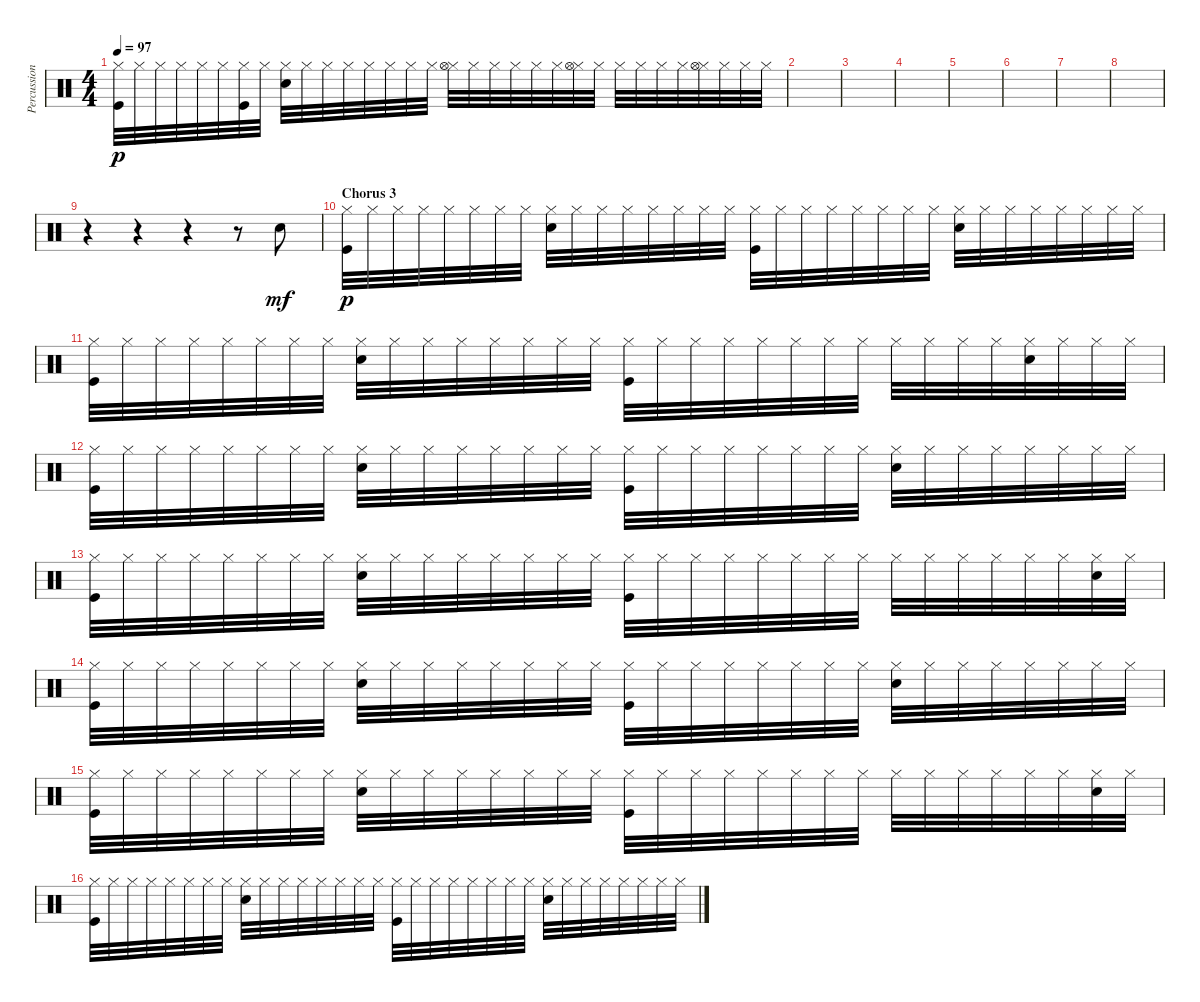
\track ("Percussion" "Percussion") {instrument percussion}
\staff {score}
\articulation defaults
\ts (4 4)
\tempo 97
\clef neutral
\ks c
("Hi-Hat (closed)" "Kick (hit)").32{dy p} "Hi-Hat (closed)".32 "Hi-Hat (closed)".32 "Hi-Hat (closed)".32 "Hi-Hat (closed)".32 "Hi-Hat (closed)".32 ("Hi-Hat (closed)" "Kick (hit)").32 "Hi-Hat (closed)".32 ("Hi-Hat (closed)" "Electric Snare (hit)").32 "Hi-Hat (closed)".32 "Hi-Hat (closed)".32 "Hi-Hat (closed)".32 "Hi-Hat (closed)".32 "Hi-Hat (closed)".32 "Hi-Hat (closed)".32 "Hi-Hat (closed)".32 ("Hi-Hat (closed)" "Hi-Hat (open)").32 "Hi-Hat (closed)".32 "Hi-Hat (closed)".32 "Hi-Hat (closed)".32 "Hi-Hat (closed)".32 "Hi-Hat (closed)".32 ("Hi-Hat (closed)" "Hi-Hat (open)").32 "Hi-Hat (closed)".32 "Hi-Hat (closed)".32 "Hi-Hat (closed)".32 "Hi-Hat (closed)".32 "Hi-Hat (closed)".32 ("Hi-Hat (closed)" "Hi-Hat (open)").32 "Hi-Hat (closed)".32 "Hi-Hat (closed)".32 "Hi-Hat (closed)".32 |
|
|
|
|
|
|
|
r.4 r.4 r.4 r.8 "Electric Snare (hit)".8{dy mf} |
\section ("" "Chorus 3")
("Hi-Hat (closed)" "Kick (hit)").32{dy p} "Hi-Hat (closed)".32 "Hi-Hat (closed)".32 "Hi-Hat (closed)".32 "Hi-Hat (closed)".32 "Hi-Hat (closed)".32 "Hi-Hat (closed)".32 "Hi-Hat (closed)".32 ("Hi-Hat (closed)" "Electric Snare (hit)").32 "Hi-Hat (closed)".32 "Hi-Hat (closed)".32 "Hi-Hat (closed)".32 "Hi-Hat (closed)".32 "Hi-Hat (closed)".32 "Hi-Hat (closed)".32 "Hi-Hat (closed)".32 ("Hi-Hat (closed)" "Kick (hit)").32 "Hi-Hat (closed)".32 "Hi-Hat (closed)".32 "Hi-Hat (closed)".32 "Hi-Hat (closed)".32 "Hi-Hat (closed)".32 "Hi-Hat (closed)".32 "Hi-Hat (closed)".32 ("Hi-Hat (closed)" "Electric Snare (hit)").32 "Hi-Hat (closed)".32 "Hi-Hat (closed)".32 "Hi-Hat (closed)".32 "Hi-Hat (closed)".32 "Hi-Hat (closed)".32 "Hi-Hat (closed)".32 "Hi-Hat (closed)".32 |
("Hi-Hat (closed)" "Kick (hit)").32 "Hi-Hat (closed)".32 "Hi-Hat (closed)".32 "Hi-Hat (closed)".32 "Hi-Hat (closed)".32 "Hi-Hat (closed)".32 "Hi-Hat (closed)".32 "Hi-Hat (closed)".32 ("Hi-Hat (closed)" "Electric Snare (hit)").32 "Hi-Hat (closed)".32 "Hi-Hat (closed)".32 "Hi-Hat (closed)".32 "Hi-Hat (closed)".32 "Hi-Hat (closed)".32 "Hi-Hat (closed)".32 "Hi-Hat (closed)".32 ("Hi-Hat (closed)" "Kick (hit)").32 "Hi-Hat (closed)".32 "Hi-Hat (closed)".32 "Hi-Hat (closed)".32 "Hi-Hat (closed)".32 "Hi-Hat (closed)".32 "Hi-Hat (closed)".32 "Hi-Hat (closed)".32 "Hi-Hat (closed)".32 "Hi-Hat (closed)".32 "Hi-Hat (closed)".32 "Hi-Hat (closed)".32 ("Hi-Hat (closed)" "Electric Snare (hit)").32 "Hi-Hat (closed)".32 "Hi-Hat (closed)".32 "Hi-Hat (closed)".32 |
("Hi-Hat (closed)" "Kick (hit)").32 "Hi-Hat (closed)".32 "Hi-Hat (closed)".32 "Hi-Hat (closed)".32 "Hi-Hat (closed)".32 "Hi-Hat (closed)".32 "Hi-Hat (closed)".32 "Hi-Hat (closed)".32 ("Hi-Hat (closed)" "Electric Snare (hit)").32 "Hi-Hat (closed)".32 "Hi-Hat (closed)".32 "Hi-Hat (closed)".32 "Hi-Hat (closed)".32 "Hi-Hat (closed)".32 "Hi-Hat (closed)".32 "Hi-Hat (closed)".32 ("Hi-Hat (closed)" "Kick (hit)").32 "Hi-Hat (closed)".32 "Hi-Hat (closed)".32 "Hi-Hat (closed)".32 "Hi-Hat (closed)".32 "Hi-Hat (closed)".32 "Hi-Hat (closed)".32 "Hi-Hat (closed)".32 ("Hi-Hat (closed)" "Electric Snare (hit)").32 "Hi-Hat (closed)".32 "Hi-Hat (closed)".32 "Hi-Hat (closed)".32 "Hi-Hat (closed)".32 "Hi-Hat (closed)".32 "Hi-Hat (closed)".32 "Hi-Hat (closed)".32 |
("Hi-Hat (closed)" "Kick (hit)").32 "Hi-Hat (closed)".32 "Hi-Hat (closed)".32 "Hi-Hat (closed)".32 "Hi-Hat (closed)".32 "Hi-Hat (closed)".32 "Hi-Hat (closed)".32 "Hi-Hat (closed)".32 ("Hi-Hat (closed)" "Electric Snare (hit)").32 "Hi-Hat (closed)".32 "Hi-Hat (closed)".32 "Hi-Hat (closed)".32 "Hi-Hat (closed)".32 "Hi-Hat (closed)".32 "Hi-Hat (closed)".32 "Hi-Hat (closed)".32 ("Hi-Hat (closed)" "Kick (hit)").32 "Hi-Hat (closed)".32 "Hi-Hat (closed)".32 "Hi-Hat (closed)".32 "Hi-Hat (closed)".32 "Hi-Hat (closed)".32 "Hi-Hat (closed)".32 "Hi-Hat (closed)".32 "Hi-Hat (closed)".32 "Hi-Hat (closed)".32 "Hi-Hat (closed)".32 "Hi-Hat (closed)".32 "Hi-Hat (closed)".32 "Hi-Hat (closed)".32 ("Hi-Hat (closed)" "Electric Snare (hit)").32 "Hi-Hat (closed)".32 |
("Hi-Hat (closed)" "Kick (hit)").32 "Hi-Hat (closed)".32 "Hi-Hat (closed)".32 "Hi-Hat (closed)".32 "Hi-Hat (closed)".32 "Hi-Hat (closed)".32 "Hi-Hat (closed)".32 "Hi-Hat (closed)".32 ("Hi-Hat (closed)" "Electric Snare (hit)").32 "Hi-Hat (closed)".32 "Hi-Hat (closed)".32 "Hi-Hat (closed)".32 "Hi-Hat (closed)".32 "Hi-Hat (closed)".32 "Hi-Hat (closed)".32 "Hi-Hat (closed)".32 ("Hi-Hat (closed)" "Kick (hit)").32 "Hi-Hat (closed)".32 "Hi-Hat (closed)".32 "Hi-Hat (closed)".32 "Hi-Hat (closed)".32 "Hi-Hat (closed)".32 "Hi-Hat (closed)".32 "Hi-Hat (closed)".32 ("Hi-Hat (closed)" "Electric Snare (hit)").32 "Hi-Hat (closed)".32 "Hi-Hat (closed)".32 "Hi-Hat (closed)".32 "Hi-Hat (closed)".32 "Hi-Hat (closed)".32 "Hi-Hat (closed)".32 "Hi-Hat (closed)".32 |
("Hi-Hat (closed)" "Kick (hit)").32 "Hi-Hat (closed)".32 "Hi-Hat (closed)".32 "Hi-Hat (closed)".32 "Hi-Hat (closed)".32 "Hi-Hat (closed)".32 "Hi-Hat (closed)".32 "Hi-Hat (closed)".32 ("Hi-Hat (closed)" "Electric Snare (hit)").32 "Hi-Hat (closed)".32 "Hi-Hat (closed)".32 "Hi-Hat (closed)".32 "Hi-Hat (closed)".32 "Hi-Hat (closed)".32 "Hi-Hat (closed)".32 "Hi-Hat (closed)".32 ("Hi-Hat (closed)" "Kick (hit)").32 "Hi-Hat (closed)".32 "Hi-Hat (closed)".32 "Hi-Hat (closed)".32 "Hi-Hat (closed)".32 "Hi-Hat (closed)".32 "Hi-Hat (closed)".32 "Hi-Hat (closed)".32 "Hi-Hat (closed)".32 "Hi-Hat (closed)".32 "Hi-Hat (closed)".32 "Hi-Hat (closed)".32 "Hi-Hat (closed)".32 "Hi-Hat (closed)".32 ("Hi-Hat (closed)" "Electric Snare (hit)").32 "Hi-Hat (closed)".32 |
("Hi-Hat (closed)" "Kick (hit)").32 "Hi-Hat (closed)".32 "Hi-Hat (closed)".32 "Hi-Hat (closed)".32 "Hi-Hat (closed)".32 "Hi-Hat (closed)".32 "Hi-Hat (closed)".32 "Hi-Hat (closed)".32 ("Hi-Hat (closed)" "Electric Snare (hit)").32 "Hi-Hat (closed)".32 "Hi-Hat (closed)".32 "Hi-Hat (closed)".32 "Hi-Hat (closed)".32 "Hi-Hat (closed)".32 "Hi-Hat (closed)".32 "Hi-Hat (closed)".32 ("Hi-Hat (closed)" "Kick (hit)").32 "Hi-Hat (closed)".32 "Hi-Hat (closed)".32 "Hi-Hat (closed)".32 "Hi-Hat (closed)".32 "Hi-Hat (closed)".32 "Hi-Hat (closed)".32 "Hi-Hat (closed)".32 ("Hi-Hat (closed)" "Electric Snare (hit)").32 "Hi-Hat (closed)".32 "Hi-Hat (closed)".32 "Hi-Hat (closed)".32 "Hi-Hat (closed)".32 "Hi-Hat (closed)".32 "Hi-Hat (closed)".32 "Hi-Hat (closed)".32
